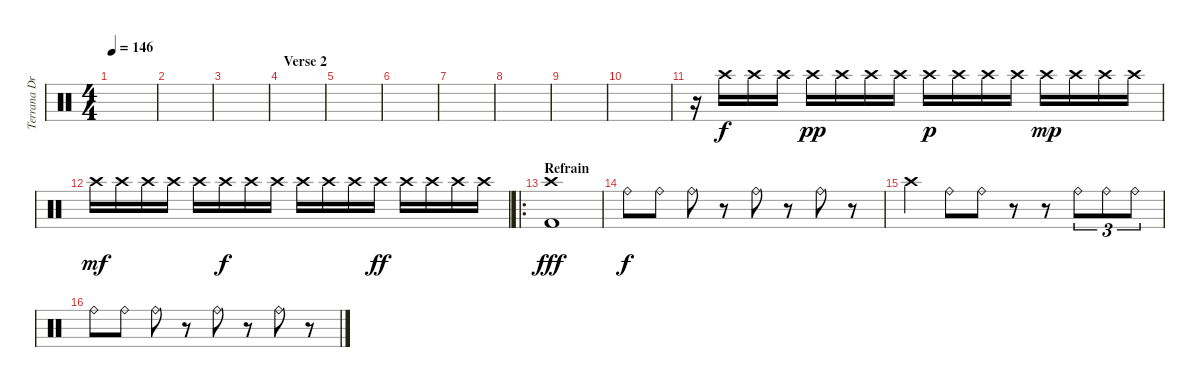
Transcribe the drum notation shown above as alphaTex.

\track ("Terrana Drums" "Terrana Dr") {instrument percussion}
\staff {score}
\articulation defaults
\ts (4 4)
\tempo 146
\clef neutral
\ks c
|
|
|
\section ("" "Verse 2")
|
|
|
|
|
|
|
r.16 "Crash high (hit)".16 "Crash high (hit)".16 "Crash high (hit)".16 "Crash high (hit)".16{dy pp} "Crash high (hit)".16 "Crash high (hit)".16 "Crash high (hit)".16 "Crash high (hit)".16{dy p} "Crash high (hit)".16 "Crash high (hit)".16 "Crash high (hit)".16 "Crash high (hit)".16{dy mp} "Crash high (hit)".16 "Crash high (hit)".16 "Crash high (hit)".16 |
"Crash high (hit)".16{dy mf} "Crash high (hit)".16 "Crash high (hit)".16 "Crash high (hit)".16 "Crash high (hit)".16 "Crash high (hit)".16{dy f} "Crash high (hit)".16 "Crash high (hit)".16 "Crash high (hit)".16 "Crash high (hit)".16 "Crash high (hit)".16 "Crash high (hit)".16{dy ff} "Crash high (hit)".16 "Crash high (hit)".16 "Crash high (hit)".16 "Crash high (hit)".16 |
\ro
\section ("" "Refrain")
("Crash high (hit)" "Kick (hit) 2").1{dy fff} |
"Ride (bell)".8{dy f} "Ride (bell)".8 "Ride (bell)".8 r.8 "Ride (bell)".8 r.8 "Ride (bell)".8 r.8 |
"Crash high (hit)".4 "Ride (bell)".8 "Ride (bell)".8 r.8 r.8 "Ride (bell)".8{tu (3 2)} "Ride (bell)".8{tu (3 2)} "Ride (bell)".8{tu (3 2)} |
"Ride (bell)".8 "Ride (bell)".8 "Ride (bell)".8 r.8 "Ride (bell)".8 r.8 "Ride (bell)".8 r.8
